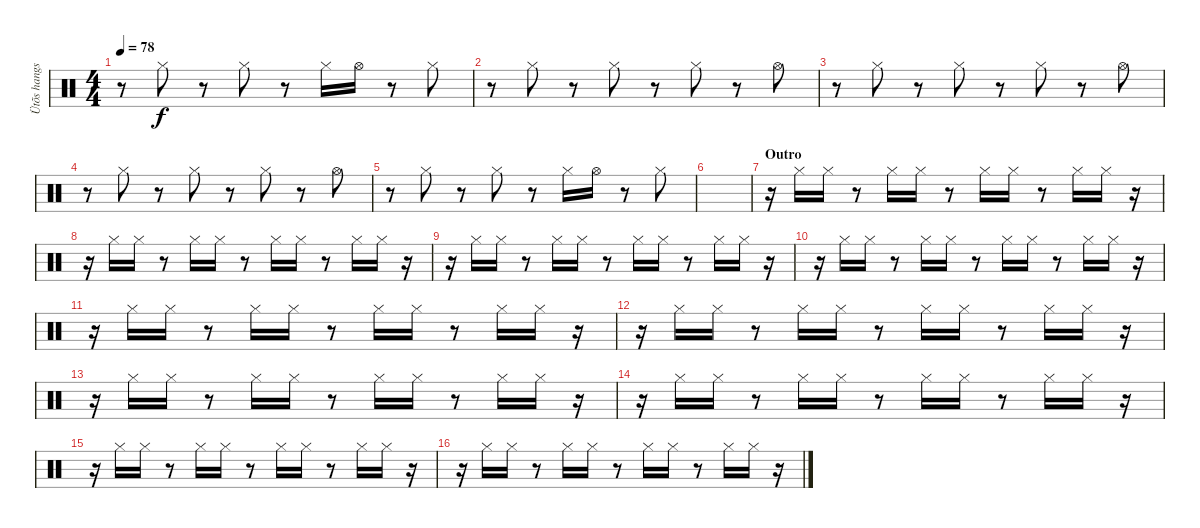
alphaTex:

\track ("Ütõs hangszer" "Ütõs hangs") {instrument percussion}
\staff {score}
\articulation defaults
\ts (4 4)
\tempo 78
\clef neutral
\ks c
r.8{dy f} "Hi-Hat (closed)".8 r.8 "Hi-Hat (closed)".8 r.8 "Hi-Hat (closed)".16 "Hi-Hat (open)".16 r.8 "Hi-Hat (closed)".8 |
r.8 "Hi-Hat (closed)".8 r.8 "Hi-Hat (closed)".8 r.8 "Hi-Hat (closed)".8 r.8 "Hi-Hat (open)".8 |
r.8 "Hi-Hat (closed)".8 r.8 "Hi-Hat (closed)".8 r.8 "Hi-Hat (closed)".8 r.8 "Hi-Hat (open)".8 |
r.8 "Hi-Hat (closed)".8 r.8 "Hi-Hat (closed)".8 r.8 "Hi-Hat (closed)".8 r.8 "Hi-Hat (open)".8 |
r.8 "Hi-Hat (closed)".8 r.8 "Hi-Hat (closed)".8 r.8 "Hi-Hat (closed)".16 "Hi-Hat (open)".16 r.8 "Hi-Hat (closed)".8 |
|
\section ("" "Outro")
r.16 "Hi-Hat (closed)".16 "Hi-Hat (closed)".16 r.8 "Hi-Hat (closed)".16 "Hi-Hat (closed)".16 r.8 "Hi-Hat (closed)".16 "Hi-Hat (closed)".16 r.8 "Hi-Hat (closed)".16 "Hi-Hat (closed)".16 r.16 |
r.16 "Hi-Hat (closed)".16 "Hi-Hat (closed)".16 r.8 "Hi-Hat (closed)".16 "Hi-Hat (closed)".16 r.8 "Hi-Hat (closed)".16 "Hi-Hat (closed)".16 r.8 "Hi-Hat (closed)".16 "Hi-Hat (closed)".16 r.16 |
r.16 "Hi-Hat (closed)".16 "Hi-Hat (closed)".16 r.8 "Hi-Hat (closed)".16 "Hi-Hat (closed)".16 r.8 "Hi-Hat (closed)".16 "Hi-Hat (closed)".16 r.8 "Hi-Hat (closed)".16 "Hi-Hat (closed)".16 r.16 |
r.16 "Hi-Hat (closed)".16 "Hi-Hat (closed)".16 r.8 "Hi-Hat (closed)".16 "Hi-Hat (closed)".16 r.8 "Hi-Hat (closed)".16 "Hi-Hat (closed)".16 r.8 "Hi-Hat (closed)".16 "Hi-Hat (closed)".16 r.16 |
r.16 "Hi-Hat (closed)".16 "Hi-Hat (closed)".16 r.8 "Hi-Hat (closed)".16 "Hi-Hat (closed)".16 r.8 "Hi-Hat (closed)".16 "Hi-Hat (closed)".16 r.8 "Hi-Hat (closed)".16 "Hi-Hat (closed)".16 r.16 |
r.16 "Hi-Hat (closed)".16 "Hi-Hat (closed)".16 r.8 "Hi-Hat (closed)".16 "Hi-Hat (closed)".16 r.8 "Hi-Hat (closed)".16 "Hi-Hat (closed)".16 r.8 "Hi-Hat (closed)".16 "Hi-Hat (closed)".16 r.16 |
r.16 "Hi-Hat (closed)".16 "Hi-Hat (closed)".16 r.8 "Hi-Hat (closed)".16 "Hi-Hat (closed)".16 r.8 "Hi-Hat (closed)".16 "Hi-Hat (closed)".16 r.8 "Hi-Hat (closed)".16 "Hi-Hat (closed)".16 r.16 |
r.16 "Hi-Hat (closed)".16 "Hi-Hat (closed)".16 r.8 "Hi-Hat (closed)".16 "Hi-Hat (closed)".16 r.8 "Hi-Hat (closed)".16 "Hi-Hat (closed)".16 r.8 "Hi-Hat (closed)".16 "Hi-Hat (closed)".16 r.16 |
r.16 "Hi-Hat (closed)".16 "Hi-Hat (closed)".16 r.8 "Hi-Hat (closed)".16 "Hi-Hat (closed)".16 r.8 "Hi-Hat (closed)".16 "Hi-Hat (closed)".16 r.8 "Hi-Hat (closed)".16 "Hi-Hat (closed)".16 r.16 |
r.16 "Hi-Hat (closed)".16 "Hi-Hat (closed)".16 r.8 "Hi-Hat (closed)".16 "Hi-Hat (closed)".16 r.8 "Hi-Hat (closed)".16 "Hi-Hat (closed)".16 r.8 "Hi-Hat (closed)".16 "Hi-Hat (closed)".16 r.16
